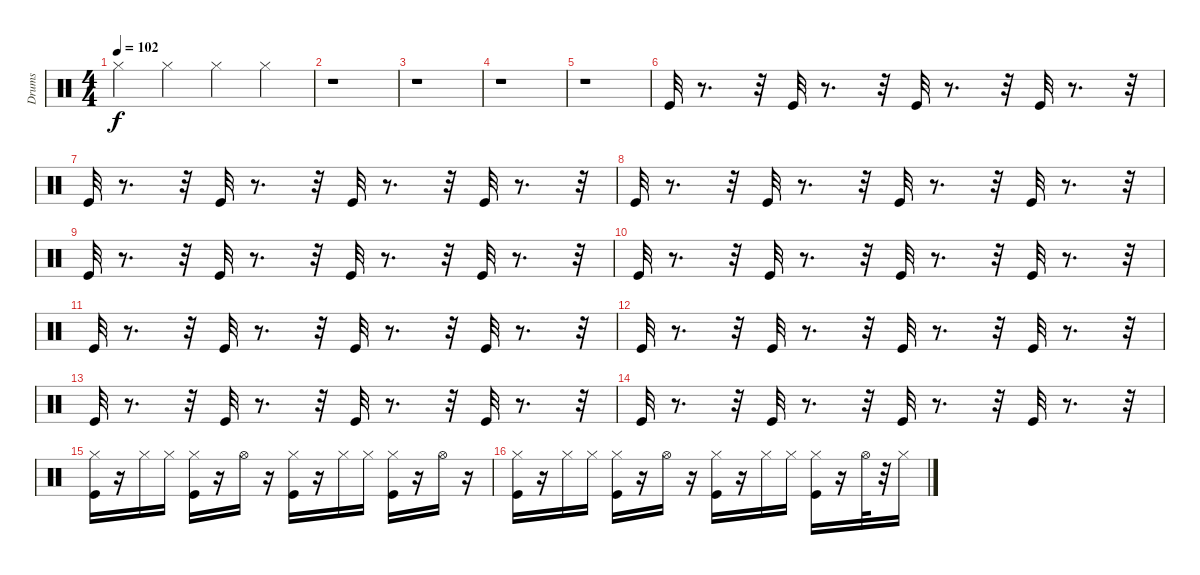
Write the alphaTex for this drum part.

\track ("Drums" "Drums") {instrument percussion}
\staff {score}
\articulation defaults
\ts (4 4)
\tempo 102
\clef neutral
\ks c "Hi-Hat (closed)".4{dy f} "Hi-Hat (closed)".4 "Hi-Hat (closed)".4 "Hi-Hat (closed)".4
|
r.1 |
r.1 |
r.1 |
r.1 |
"Kick (hit)".32 r.8{d} r.32 "Kick (hit)".32 r.8{d} r.32 "Kick (hit)".32 r.8{d} r.32 "Kick (hit)".32 r.8{d} r.32 |
"Kick (hit)".32 r.8{d} r.32 "Kick (hit)".32 r.8{d} r.32 "Kick (hit)".32 r.8{d} r.32 "Kick (hit)".32 r.8{d} r.32 |
"Kick (hit)".32 r.8{d} r.32 "Kick (hit)".32 r.8{d} r.32 "Kick (hit)".32 r.8{d} r.32 "Kick (hit)".32 r.8{d} r.32 |
"Kick (hit)".32 r.8{d} r.32 "Kick (hit)".32 r.8{d} r.32 "Kick (hit)".32 r.8{d} r.32 "Kick (hit)".32 r.8{d} r.32 |
"Kick (hit)".32 r.8{d} r.32 "Kick (hit)".32 r.8{d} r.32 "Kick (hit)".32 r.8{d} r.32 "Kick (hit)".32 r.8{d} r.32 |
"Kick (hit)".32 r.8{d} r.32 "Kick (hit)".32 r.8{d} r.32 "Kick (hit)".32 r.8{d} r.32 "Kick (hit)".32 r.8{d} r.32 |
"Kick (hit)".32 r.8{d} r.32 "Kick (hit)".32 r.8{d} r.32 "Kick (hit)".32 r.8{d} r.32 "Kick (hit)".32 r.8{d} r.32 |
"Kick (hit)".32 r.8{d} r.32 "Kick (hit)".32 r.8{d} r.32 "Kick (hit)".32 r.8{d} r.32 "Kick (hit)".32 r.8{d} r.32 |
"Kick (hit)".32 r.8{d} r.32 "Kick (hit)".32 r.8{d} r.32 "Kick (hit)".32 r.8{d} r.32 "Kick (hit)".32 r.8{d} r.32 |
("Hi-Hat (closed)" "Kick (hit)").16 r.16 "Hi-Hat (closed)".16 "Hi-Hat (closed)".16 ("Hi-Hat (closed)" "Kick (hit)").16 r.16 "Hi-Hat (open)".16 r.16 ("Hi-Hat (closed)" "Kick (hit)").16 r.16 "Hi-Hat (closed)".16 "Hi-Hat (closed)".16 ("Hi-Hat (closed)" "Kick (hit)").16 r.16 "Hi-Hat (open)".16 r.16 |
("Hi-Hat (closed)" "Kick (hit)").16 r.16 "Hi-Hat (closed)".16 "Hi-Hat (closed)".16 ("Hi-Hat (closed)" "Kick (hit)").16 r.16 "Hi-Hat (open)".16 r.16 ("Hi-Hat (closed)" "Kick (hit)").16 r.16 "Hi-Hat (closed)".16 "Hi-Hat (closed)".16 ("Hi-Hat (closed)" "Kick (hit)").16 r.16 "Hi-Hat (open)".32 r.32 "Hi-Hat (closed)".16
